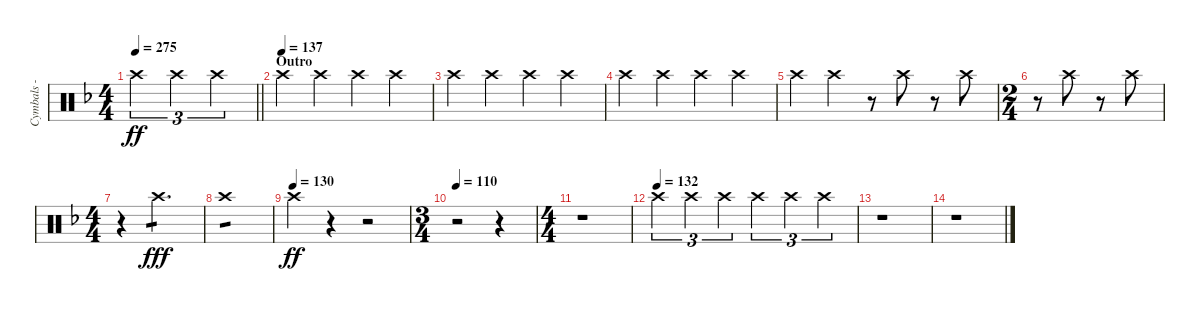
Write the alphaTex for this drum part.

\track ("Cymbals - crash" "Cymbals - ") {instrument percussion}
\staff {score}
\articulation defaults
\ts (4 4)
\tempo 275
\clef neutral
\barLineRight lightlight
\ks dminor "Crash high (hit)".2{tu (3 2) dy ff} "Crash high (hit)".2{tu (3 2)} "Crash high (hit)".2{tu (3 2)}
|
\section ("" "Outro")
\tempo (137)
"Crash high (hit)".4{volume 2 balance 6} "Crash high (hit)".4 "Crash high (hit)".4 "Crash high (hit)".4 |
"Crash high (hit)".4 "Crash high (hit)".4 "Crash high (hit)".4 "Crash high (hit)".4 |
"Crash high (hit)".4 "Crash high (hit)".4 "Crash high (hit)".4 "Crash high (hit)".4 |
"Crash high (hit)".4 "Crash high (hit)".4 r.8 "Crash high (hit)".8 r.8 "Crash high (hit)".8 |
\ts (2 4)
r.8 "Crash high (hit)".8 r.8 "Crash high (hit)".8 |
\ts (4 4)
r.4 "Crash high (hit)".2{d tp 1 dy fff} |
"Crash high (hit)".1{tp 1} |
\tempo (130)
"Crash high (hit)".4{dy ff} r.4 r.2 |
\ts (3 4)
\tempo 110
r.2 r.4 |
\ts (4 4)
r.1 |
\tempo (132)
"Crash high (hit)".4{tu (3 2)} "Crash high (hit)".4{tu (3 2)} "Crash high (hit)".4{tu (3 2)} "Crash high (hit)".4{tu (3 2)} "Crash high (hit)".4{tu (3 2)} "Crash high (hit)".4{tu (3 2)} |
r.1{volume 0} |
r.1
